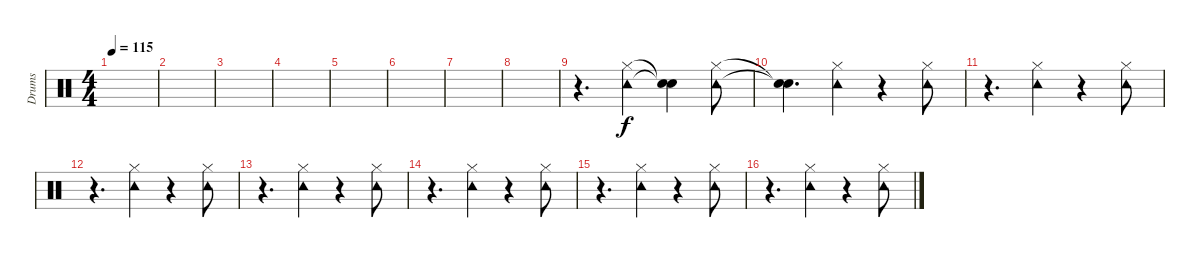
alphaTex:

\track ("Drums" "Drums") {instrument percussion}
\staff {score}
\articulation defaults
\ts (4 4)
\tempo 115
\clef neutral
\ks c
|
|
|
|
|
|
|
|
r.4{d} ("Tambourine (hit)" "Hi-Hat (closed)").4 ("Snare (hit)"{t} "Snare (hit)"{t}).4 ("Tambourine (hit)" "Hi-Hat (closed)").8 |
("Snare (hit)"{t} "Snare (hit)"{t}).4{d} ("Tambourine (hit)" "Hi-Hat (closed)").4 r.4 ("Tambourine (hit)" "Hi-Hat (closed)").8 |
r.4{d} ("Tambourine (hit)" "Hi-Hat (closed)").4 r.4 ("Tambourine (hit)" "Hi-Hat (closed)").8 |
r.4{d} ("Tambourine (hit)" "Hi-Hat (closed)").4 r.4 ("Tambourine (hit)" "Hi-Hat (closed)").8 |
r.4{d} ("Tambourine (hit)" "Hi-Hat (closed)").4 r.4 ("Tambourine (hit)" "Hi-Hat (closed)").8 |
r.4{d} ("Tambourine (hit)" "Hi-Hat (closed)").4 r.4 ("Tambourine (hit)" "Hi-Hat (closed)").8 |
r.4{d} ("Tambourine (hit)" "Hi-Hat (closed)").4 r.4 ("Tambourine (hit)" "Hi-Hat (closed)").8 |
r.4{d} ("Tambourine (hit)" "Hi-Hat (closed)").4 r.4 ("Tambourine (hit)" "Hi-Hat (closed)").8
